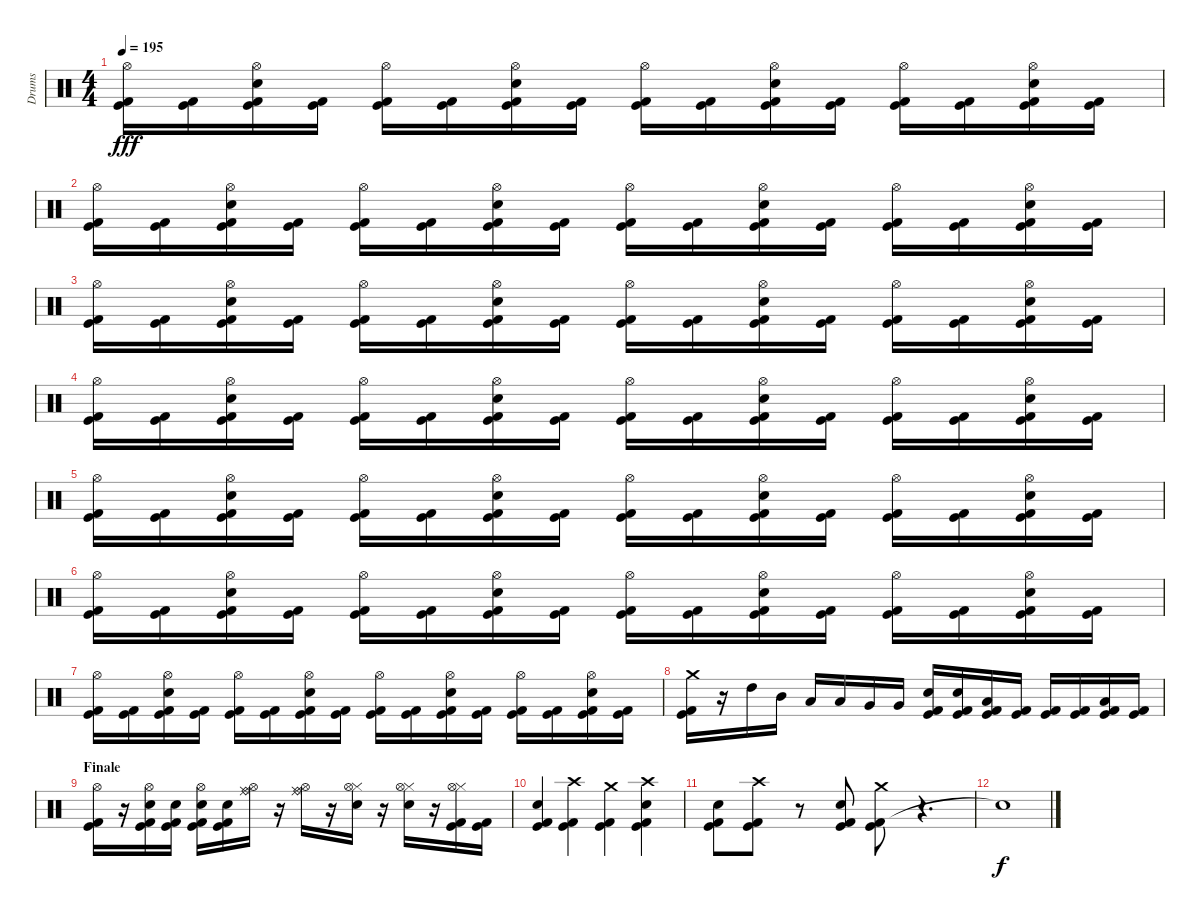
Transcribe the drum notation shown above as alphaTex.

\track ("Drums" "Drums") {instrument percussion}
\staff {score}
\articulation defaults
\ts (4 4)
\tempo 195
\clef neutral
\ks c
("Kick (hit) 2" "Kick (hit)" "Hi-Hat (open)").16{dy fff} ("Kick (hit) 2" "Kick (hit)").16 ("Kick (hit) 2" "Kick (hit)" "Snare (hit) 2" "Hi-Hat (open)").16 ("Kick (hit) 2" "Kick (hit)").16 ("Kick (hit) 2" "Kick (hit)" "Hi-Hat (open)").16 ("Kick (hit) 2" "Kick (hit)").16 ("Kick (hit) 2" "Kick (hit)" "Snare (hit) 2" "Hi-Hat (open)").16 ("Kick (hit) 2" "Kick (hit)").16 ("Kick (hit) 2" "Kick (hit)" "Hi-Hat (open)").16 ("Kick (hit) 2" "Kick (hit)").16 ("Kick (hit) 2" "Kick (hit)" "Snare (hit) 2" "Hi-Hat (open)").16 ("Kick (hit) 2" "Kick (hit)").16 ("Kick (hit) 2" "Kick (hit)" "Hi-Hat (open)").16 ("Kick (hit) 2" "Kick (hit)").16 ("Kick (hit) 2" "Kick (hit)" "Snare (hit) 2" "Hi-Hat (open)").16 ("Kick (hit) 2" "Kick (hit)").16 |
("Kick (hit) 2" "Kick (hit)" "Hi-Hat (open)").16 ("Kick (hit) 2" "Kick (hit)").16 ("Kick (hit) 2" "Kick (hit)" "Snare (hit) 2" "Hi-Hat (open)").16 ("Kick (hit) 2" "Kick (hit)").16 ("Kick (hit) 2" "Kick (hit)" "Hi-Hat (open)").16 ("Kick (hit) 2" "Kick (hit)").16 ("Kick (hit) 2" "Kick (hit)" "Snare (hit) 2" "Hi-Hat (open)").16 ("Kick (hit) 2" "Kick (hit)").16 ("Kick (hit) 2" "Kick (hit)" "Hi-Hat (open)").16 ("Kick (hit) 2" "Kick (hit)").16 ("Kick (hit) 2" "Kick (hit)" "Snare (hit) 2" "Hi-Hat (open)").16 ("Kick (hit) 2" "Kick (hit)").16 ("Kick (hit) 2" "Kick (hit)" "Hi-Hat (open)").16 ("Kick (hit) 2" "Kick (hit)").16 ("Kick (hit) 2" "Kick (hit)" "Snare (hit) 2" "Hi-Hat (open)").16 ("Kick (hit) 2" "Kick (hit)").16 |
("Kick (hit) 2" "Kick (hit)" "Hi-Hat (open)").16 ("Kick (hit) 2" "Kick (hit)").16 ("Kick (hit) 2" "Kick (hit)" "Snare (hit) 2" "Hi-Hat (open)").16 ("Kick (hit) 2" "Kick (hit)").16 ("Kick (hit) 2" "Kick (hit)" "Hi-Hat (open)").16 ("Kick (hit) 2" "Kick (hit)").16 ("Kick (hit) 2" "Kick (hit)" "Snare (hit) 2" "Hi-Hat (open)").16 ("Kick (hit) 2" "Kick (hit)").16 ("Kick (hit) 2" "Kick (hit)" "Hi-Hat (open)").16 ("Kick (hit) 2" "Kick (hit)").16 ("Kick (hit) 2" "Kick (hit)" "Snare (hit) 2" "Hi-Hat (open)").16 ("Kick (hit) 2" "Kick (hit)").16 ("Kick (hit) 2" "Kick (hit)" "Hi-Hat (open)").16 ("Kick (hit) 2" "Kick (hit)").16 ("Kick (hit) 2" "Kick (hit)" "Snare (hit) 2" "Hi-Hat (open)").16 ("Kick (hit) 2" "Kick (hit)").16 |
("Kick (hit) 2" "Kick (hit)" "Hi-Hat (open)").16 ("Kick (hit) 2" "Kick (hit)").16 ("Kick (hit) 2" "Kick (hit)" "Snare (hit) 2" "Hi-Hat (open)").16 ("Kick (hit) 2" "Kick (hit)").16 ("Kick (hit) 2" "Kick (hit)" "Hi-Hat (open)").16 ("Kick (hit) 2" "Kick (hit)").16 ("Kick (hit) 2" "Kick (hit)" "Snare (hit) 2" "Hi-Hat (open)").16 ("Kick (hit) 2" "Kick (hit)").16 ("Kick (hit) 2" "Kick (hit)" "Hi-Hat (open)").16 ("Kick (hit) 2" "Kick (hit)").16 ("Kick (hit) 2" "Kick (hit)" "Snare (hit) 2" "Hi-Hat (open)").16 ("Kick (hit) 2" "Kick (hit)").16 ("Kick (hit) 2" "Kick (hit)" "Hi-Hat (open)").16 ("Kick (hit) 2" "Kick (hit)").16 ("Kick (hit) 2" "Kick (hit)" "Snare (hit) 2" "Hi-Hat (open)").16 ("Kick (hit) 2" "Kick (hit)").16 |
("Kick (hit) 2" "Kick (hit)" "Hi-Hat (open)").16 ("Kick (hit) 2" "Kick (hit)").16 ("Kick (hit) 2" "Kick (hit)" "Snare (hit) 2" "Hi-Hat (open)").16 ("Kick (hit) 2" "Kick (hit)").16 ("Kick (hit) 2" "Kick (hit)" "Hi-Hat (open)").16 ("Kick (hit) 2" "Kick (hit)").16 ("Kick (hit) 2" "Kick (hit)" "Snare (hit) 2" "Hi-Hat (open)").16 ("Kick (hit) 2" "Kick (hit)").16 ("Kick (hit) 2" "Kick (hit)" "Hi-Hat (open)").16 ("Kick (hit) 2" "Kick (hit)").16 ("Kick (hit) 2" "Kick (hit)" "Snare (hit) 2" "Hi-Hat (open)").16 ("Kick (hit) 2" "Kick (hit)").16 ("Kick (hit) 2" "Kick (hit)" "Hi-Hat (open)").16 ("Kick (hit) 2" "Kick (hit)").16 ("Kick (hit) 2" "Kick (hit)" "Snare (hit) 2" "Hi-Hat (open)").16 ("Kick (hit) 2" "Kick (hit)").16 |
("Kick (hit) 2" "Kick (hit)" "Hi-Hat (open)").16 ("Kick (hit) 2" "Kick (hit)").16 ("Kick (hit) 2" "Kick (hit)" "Snare (hit) 2" "Hi-Hat (open)").16 ("Kick (hit) 2" "Kick (hit)").16 ("Kick (hit) 2" "Kick (hit)" "Hi-Hat (open)").16 ("Kick (hit) 2" "Kick (hit)").16 ("Kick (hit) 2" "Kick (hit)" "Snare (hit) 2" "Hi-Hat (open)").16 ("Kick (hit) 2" "Kick (hit)").16 ("Kick (hit) 2" "Kick (hit)" "Hi-Hat (open)").16 ("Kick (hit) 2" "Kick (hit)").16 ("Kick (hit) 2" "Kick (hit)" "Snare (hit) 2" "Hi-Hat (open)").16 ("Kick (hit) 2" "Kick (hit)").16 ("Kick (hit) 2" "Kick (hit)" "Hi-Hat (open)").16 ("Kick (hit) 2" "Kick (hit)").16 ("Kick (hit) 2" "Kick (hit)" "Snare (hit) 2" "Hi-Hat (open)").16 ("Kick (hit) 2" "Kick (hit)").16 |
("Kick (hit) 2" "Kick (hit)" "Hi-Hat (open)").16 ("Kick (hit) 2" "Kick (hit)").16 ("Kick (hit) 2" "Kick (hit)" "Snare (hit) 2" "Hi-Hat (open)").16 ("Kick (hit) 2" "Kick (hit)").16 ("Kick (hit) 2" "Kick (hit)" "Hi-Hat (open)").16 ("Kick (hit) 2" "Kick (hit)").16 ("Kick (hit) 2" "Kick (hit)" "Snare (hit) 2" "Hi-Hat (open)").16 ("Kick (hit) 2" "Kick (hit)").16 ("Kick (hit) 2" "Kick (hit)" "Hi-Hat (open)").16 ("Kick (hit) 2" "Kick (hit)").16 ("Kick (hit) 2" "Kick (hit)" "Snare (hit) 2" "Hi-Hat (open)").16 ("Kick (hit) 2" "Kick (hit)").16 ("Kick (hit) 2" "Kick (hit)" "Hi-Hat (open)").16 ("Kick (hit) 2" "Kick (hit)").16 ("Kick (hit) 2" "Kick (hit)" "Snare (hit) 2" "Hi-Hat (open)").16 ("Kick (hit) 2" "Kick (hit)").16 |
("Kick (hit) 2" "Kick (hit)" "Crash medium (hit)").16 r.16 "High Tom (hit)".16 "Mid Tom (hit)".16 "Low Tom (hit)".16 "Low Tom (hit)".16 "Very Low Tom (hit)".16 "Very Low Tom (hit)".16 ("Kick (hit) 2" "Kick (hit)" "Snare (hit) 2").16 ("Kick (hit) 2" "Kick (hit)" "Snare (hit) 2").16 ("Kick (hit) 2" "Kick (hit)" "Low Tom (hit)").16 ("Kick (hit) 2" "Kick (hit)").16 ("Kick (hit) 2" "Kick (hit)").16 ("Kick (hit) 2" "Kick (hit)").16 ("Kick (hit) 2" "Kick (hit)" "Low Floor Tom (hit)").16 ("Kick (hit) 2" "Kick (hit)").16 |
\section ("" "Finale")
("Kick (hit) 2" "Kick (hit)" "Hi-Hat (open)").16 r.16 ("Kick (hit) 2" "Kick (hit)" "Electric Snare (hit)" "Hi-Hat (open)").16 ("Kick (hit) 2" "Kick (hit)" "Snare (hit) 2").16 ("Kick (hit) 2" "Kick (hit)" "Electric Snare (hit)" "Hi-Hat (open)").16 ("Kick (hit) 2" "Kick (hit)" "Snare (hit) 2").16 ("Ride (middle)" "Hi-Hat (open)" "Ride (bell)").16 r.16 ("Ride (middle)" "Hi-Hat (open)" "Ride (bell)").16 r.16 ("Electric Snare (hit)" "Hi-Hat (closed)" "Hi-Hat (open)").16 r.16 ("Electric Snare (hit)" "Hi-Hat (closed)" "Hi-Hat (open)").16 r.16 ("Kick (hit) 2" "Kick (hit)" "Hi-Hat (closed)" "Hi-Hat (open)").16 ("Kick (hit) 2" "Kick (hit)").16 |
("Kick (hit) 2" "Kick (hit)" "Snare (hit) 2").4 ("Kick (hit) 2" "Kick (hit)" "Crash high (hit)").4 ("Kick (hit) 2" "Kick (hit)" "Crash medium (hit)").4 ("Kick (hit) 2" "Kick (hit)" "Snare (hit) 2" "Crash high (hit)").4 |
("Kick (hit) 2" "Kick (hit)" "Snare (hit) 2").8 ("Kick (hit) 2" "Kick (hit)" "Crash high (hit)").8 r.8 ("Kick (hit) 2" "Kick (hit)" "Snare (hit) 2").8 ("Kick (hit) 2" "Kick (hit)" "Crash medium (hit)").8 r.4{d} |
"Snare (hit)"{t}.1{dy f}
